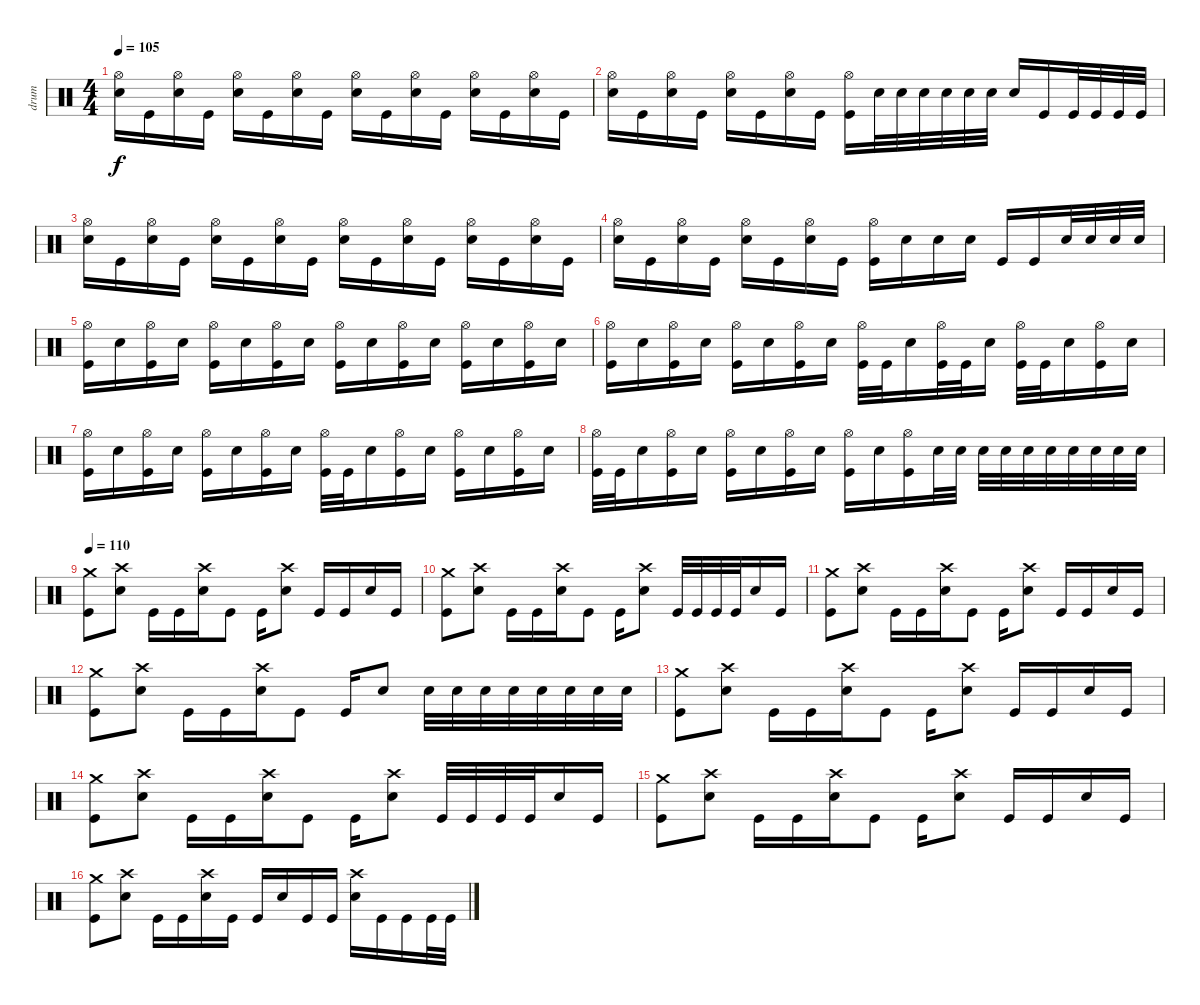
\track ("drum" "drum") {instrument percussion}
\staff {score}
\articulation defaults
\ts (4 4)
\tempo 105
\clef neutral
\ks c
("Hi-Hat (open)" "Electric Snare (hit)").16{dy f} "Kick (hit)".16 ("Hi-Hat (open)" "Electric Snare (hit)").16 "Kick (hit)".16 ("Hi-Hat (open)" "Electric Snare (hit)").16 "Kick (hit)".16 ("Hi-Hat (open)" "Electric Snare (hit)").16 "Kick (hit)".16 ("Hi-Hat (open)" "Electric Snare (hit)").16 "Kick (hit)".16 ("Hi-Hat (open)" "Electric Snare (hit)").16 "Kick (hit)".16 ("Hi-Hat (open)" "Electric Snare (hit)").16 "Kick (hit)".16 ("Hi-Hat (open)" "Electric Snare (hit)").16 "Kick (hit)".16 |
("Hi-Hat (open)" "Electric Snare (hit)").16 "Kick (hit)".16 ("Hi-Hat (open)" "Electric Snare (hit)").16 "Kick (hit)".16 ("Hi-Hat (open)" "Electric Snare (hit)").16 "Kick (hit)".16 ("Hi-Hat (open)" "Electric Snare (hit)").16 "Kick (hit)".16 ("Hi-Hat (open)" "Kick (hit)").16 "Electric Snare (hit)".32 "Electric Snare (hit)".32 "Electric Snare (hit)".32 "Electric Snare (hit)".32 "Electric Snare (hit)".32 "Electric Snare (hit)".32 "Electric Snare (hit)".16 "Kick (hit)".16 "Kick (hit)".32 "Kick (hit)".32 "Kick (hit)".32 "Kick (hit)".32 |
("Hi-Hat (open)" "Electric Snare (hit)").16 "Kick (hit)".16 ("Hi-Hat (open)" "Electric Snare (hit)").16 "Kick (hit)".16 ("Hi-Hat (open)" "Electric Snare (hit)").16 "Kick (hit)".16 ("Hi-Hat (open)" "Electric Snare (hit)").16 "Kick (hit)".16 ("Hi-Hat (open)" "Electric Snare (hit)").16 "Kick (hit)".16 ("Hi-Hat (open)" "Electric Snare (hit)").16 "Kick (hit)".16 ("Hi-Hat (open)" "Electric Snare (hit)").16 "Kick (hit)".16 ("Hi-Hat (open)" "Electric Snare (hit)").16 "Kick (hit)".16 |
("Hi-Hat (open)" "Electric Snare (hit)").16 "Kick (hit)".16 ("Hi-Hat (open)" "Electric Snare (hit)").16 "Kick (hit)".16 ("Hi-Hat (open)" "Electric Snare (hit)").16 "Kick (hit)".16 ("Hi-Hat (open)" "Electric Snare (hit)").16 "Kick (hit)".16 ("Hi-Hat (open)" "Kick (hit)").16 "Electric Snare (hit)".16 "Electric Snare (hit)".16 "Electric Snare (hit)".16 "Kick (hit)".16 "Kick (hit)".16 "Electric Snare (hit)".32 "Electric Snare (hit)".32 "Electric Snare (hit)".32 "Electric Snare (hit)".32 |
("Hi-Hat (open)" "Kick (hit)").16 "Electric Snare (hit)".16 ("Hi-Hat (open)" "Kick (hit)").16 "Electric Snare (hit)".16 ("Hi-Hat (open)" "Kick (hit)").16 "Electric Snare (hit)".16 ("Hi-Hat (open)" "Kick (hit)").16 "Electric Snare (hit)".16 ("Hi-Hat (open)" "Kick (hit)").16 "Electric Snare (hit)".16 ("Hi-Hat (open)" "Kick (hit)").16 "Electric Snare (hit)".16 ("Hi-Hat (open)" "Kick (hit)").16 "Electric Snare (hit)".16 ("Hi-Hat (open)" "Kick (hit)").16 "Electric Snare (hit)".16 |
("Hi-Hat (open)" "Kick (hit)").16 "Electric Snare (hit)".16 ("Hi-Hat (open)" "Kick (hit)").16 "Electric Snare (hit)".16 ("Hi-Hat (open)" "Kick (hit)").16 "Electric Snare (hit)".16 ("Hi-Hat (open)" "Kick (hit)").16 "Electric Snare (hit)".16 ("Hi-Hat (open)" "Kick (hit)").32 "Kick (hit)".32 "Electric Snare (hit)".16 ("Hi-Hat (open)" "Kick (hit)").32 "Kick (hit)".32 "Electric Snare (hit)".16 ("Hi-Hat (open)" "Kick (hit)").32 "Kick (hit)".32 "Electric Snare (hit)".16 ("Hi-Hat (open)" "Kick (hit)").16 "Electric Snare (hit)".16 |
("Hi-Hat (open)" "Kick (hit)").16 "Electric Snare (hit)".16 ("Hi-Hat (open)" "Kick (hit)").16 "Electric Snare (hit)".16 ("Hi-Hat (open)" "Kick (hit)").16 "Electric Snare (hit)".16 ("Hi-Hat (open)" "Kick (hit)").16 "Electric Snare (hit)".16 ("Hi-Hat (open)" "Kick (hit)").32 "Kick (hit)".32 "Electric Snare (hit)".16 ("Hi-Hat (open)" "Kick (hit)").16 "Electric Snare (hit)".16 ("Hi-Hat (open)" "Kick (hit)").16 "Electric Snare (hit)".16 ("Hi-Hat (open)" "Kick (hit)").16 "Electric Snare (hit)".16 |
("Hi-Hat (open)" "Kick (hit)").32 "Kick (hit)".32 "Electric Snare (hit)".16 ("Hi-Hat (open)" "Kick (hit)").16 "Electric Snare (hit)".16 ("Hi-Hat (open)" "Kick (hit)").16 "Electric Snare (hit)".16 ("Hi-Hat (open)" "Kick (hit)").16 "Electric Snare (hit)".16 ("Hi-Hat (open)" "Kick (hit)").16 "Electric Snare (hit)".16 ("Hi-Hat (open)" "Kick (hit)").16 "Electric Snare (hit)".32 "Electric Snare (hit)".32 "Electric Snare (hit)".32 "Electric Snare (hit)".32 "Electric Snare (hit)".32 "Electric Snare (hit)".32 "Electric Snare (hit)".32 "Electric Snare (hit)".32 "Electric Snare (hit)".32 "Electric Snare (hit)".32 |
\tempo 110
("Crash medium (hit)" "Kick (hit)").8 ("Crash high (hit)" "Electric Snare (hit)").8 "Kick (hit)".16 "Kick (hit)".16 ("Crash high (hit)" "Electric Snare (hit)").16 "Kick (hit)".8 "Kick (hit)".16 ("Crash high (hit)" "Electric Snare (hit)").8 "Kick (hit)".16 "Kick (hit)".16 "Electric Snare (hit)".16 "Kick (hit)".16 |
("Crash medium (hit)" "Kick (hit)").8 ("Crash high (hit)" "Electric Snare (hit)").8 "Kick (hit)".16 "Kick (hit)".16 ("Crash high (hit)" "Electric Snare (hit)").16 "Kick (hit)".8 "Kick (hit)".16 ("Crash high (hit)" "Electric Snare (hit)").8 "Kick (hit)".32 "Kick (hit)".32 "Kick (hit)".32 "Kick (hit)".32 "Electric Snare (hit)".16 "Kick (hit)".16 |
("Crash medium (hit)" "Kick (hit)").8 ("Crash high (hit)" "Electric Snare (hit)").8 "Kick (hit)".16 "Kick (hit)".16 ("Crash high (hit)" "Electric Snare (hit)").16 "Kick (hit)".8 "Kick (hit)".16 ("Crash high (hit)" "Electric Snare (hit)").8 "Kick (hit)".16 "Kick (hit)".16 "Electric Snare (hit)".16 "Kick (hit)".16 |
("Crash medium (hit)" "Kick (hit)").8 ("Crash high (hit)" "Electric Snare (hit)").8 "Kick (hit)".16 "Kick (hit)".16 ("Crash high (hit)" "Electric Snare (hit)").16 "Kick (hit)".8 "Kick (hit)".16 "Electric Snare (hit)".8 "Electric Snare (hit)".32 "Electric Snare (hit)".32 "Electric Snare (hit)".32 "Electric Snare (hit)".32 "Electric Snare (hit)".32 "Electric Snare (hit)".32 "Electric Snare (hit)".32 "Electric Snare (hit)".32 |
("Crash medium (hit)" "Kick (hit)").8 ("Crash high (hit)" "Electric Snare (hit)").8 "Kick (hit)".16 "Kick (hit)".16 ("Crash high (hit)" "Electric Snare (hit)").16 "Kick (hit)".8 "Kick (hit)".16 ("Crash high (hit)" "Electric Snare (hit)").8 "Kick (hit)".16 "Kick (hit)".16 "Electric Snare (hit)".16 "Kick (hit)".16 |
("Crash medium (hit)" "Kick (hit)").8 ("Crash high (hit)" "Electric Snare (hit)").8 "Kick (hit)".16 "Kick (hit)".16 ("Crash high (hit)" "Electric Snare (hit)").16 "Kick (hit)".8 "Kick (hit)".16 ("Crash high (hit)" "Electric Snare (hit)").8 "Kick (hit)".32 "Kick (hit)".32 "Kick (hit)".32 "Kick (hit)".32 "Electric Snare (hit)".16 "Kick (hit)".16 |
("Crash medium (hit)" "Kick (hit)").8 ("Crash high (hit)" "Electric Snare (hit)").8 "Kick (hit)".16 "Kick (hit)".16 ("Crash high (hit)" "Electric Snare (hit)").16 "Kick (hit)".8 "Kick (hit)".16 ("Crash high (hit)" "Electric Snare (hit)").8 "Kick (hit)".16 "Kick (hit)".16 "Electric Snare (hit)".16 "Kick (hit)".16 |
("Crash medium (hit)" "Kick (hit)").8 ("Crash high (hit)" "Electric Snare (hit)").8 "Kick (hit)".16 "Kick (hit)".16 ("Crash high (hit)" "Electric Snare (hit)").16 "Kick (hit)".16 "Kick (hit)".16 "Electric Snare (hit)".16 "Kick (hit)".16 "Kick (hit)".16 ("Crash high (hit)" "Electric Snare (hit)").16 "Kick (hit)".16 "Kick (hit)".16 "Kick (hit)".32 "Kick (hit)".32
